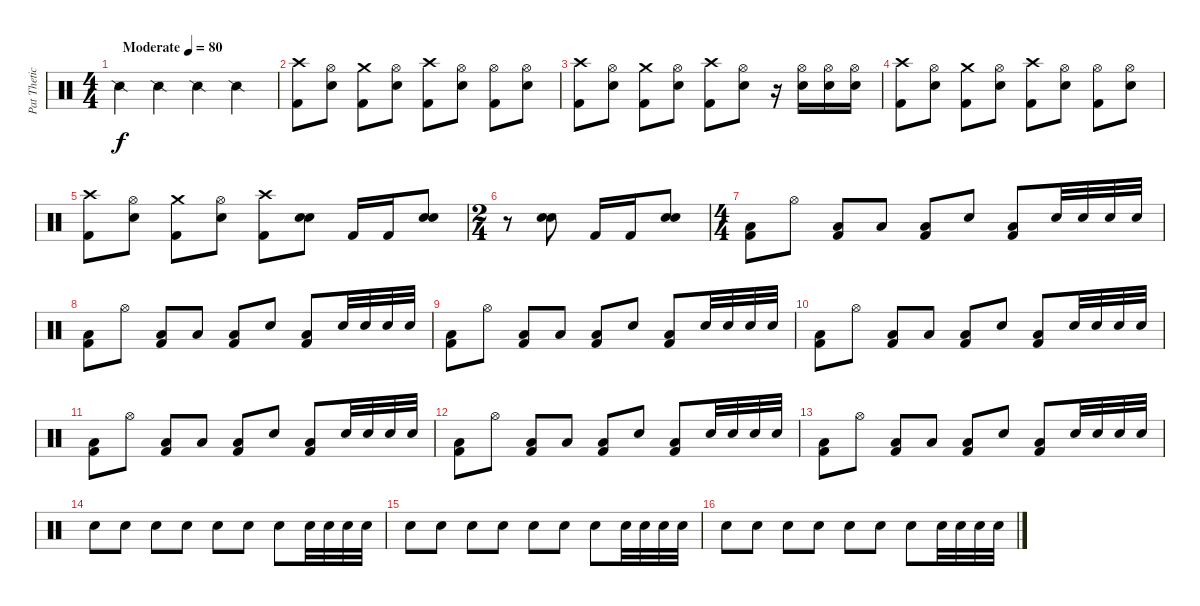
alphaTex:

\track ("Pat Thetic" "Pat Thetic") {instrument percussion}
\staff {score}
\articulation defaults
\ts (4 4)
\tempo (80 "Moderate")
\clef neutral
\ks c "Snare (side stick) 2".4{dy f} "Snare (side stick) 2".4 "Snare (side stick) 2".4 "Snare (side stick) 2".4
|
("Crash high (hit)" "Kick (hit) 2").8 ("Hi-Hat (open)" "Electric Snare (hit)").8 ("Crash medium (hit)" "Kick (hit) 2").8 ("Hi-Hat (open)" "Electric Snare (hit)").8 ("Crash high (hit)" "Kick (hit) 2").8 ("Hi-Hat (open)" "Electric Snare (hit)").8 ("Hi-Hat (open)" "Kick (hit) 2").8 ("Hi-Hat (open)" "Electric Snare (hit)").8 |
("Crash high (hit)" "Kick (hit) 2").8 ("Hi-Hat (open)" "Electric Snare (hit)").8 ("Crash medium (hit)" "Kick (hit) 2").8 ("Hi-Hat (open)" "Electric Snare (hit)").8 ("Crash high (hit)" "Kick (hit) 2").8 ("Hi-Hat (open)" "Electric Snare (hit)").8 r.16 ("Hi-Hat (open)" "Electric Snare (hit)").16 ("Hi-Hat (open)" "Electric Snare (hit)").16 ("Hi-Hat (open)" "Electric Snare (hit)").16 |
("Crash high (hit)" "Kick (hit) 2").8 ("Hi-Hat (open)" "Electric Snare (hit)").8 ("Crash medium (hit)" "Kick (hit) 2").8 ("Hi-Hat (open)" "Electric Snare (hit)").8 ("Crash high (hit)" "Kick (hit) 2").8 ("Hi-Hat (open)" "Electric Snare (hit)").8 ("Hi-Hat (open)" "Kick (hit) 2").8 ("Hi-Hat (open)" "Electric Snare (hit)").8 |
("Crash high (hit)" "Kick (hit) 2").8 ("Hi-Hat (open)" "Electric Snare (hit)").8 ("Crash medium (hit)" "Kick (hit) 2").8 ("Hi-Hat (open)" "Electric Snare (hit)").8 ("Crash high (hit)" "Kick (hit) 2").8 ("Electric Snare (hit)" "Electric Snare (hit)").8 "Kick (hit) 2".16 "Kick (hit) 2".16 ("Electric Snare (hit)" "Electric Snare (hit)").8 |
\ts (2 4)
r.8 ("Electric Snare (hit)" "Electric Snare (hit)").8 "Kick (hit) 2".16 "Kick (hit) 2".16 ("Electric Snare (hit)" "Electric Snare (hit)").8 |
\ts (4 4)
("Low Floor Tom (hit)" "Kick (hit) 2").8 "Hi-Hat (open)".8 ("Low Floor Tom (hit)" "Kick (hit) 2").8 "Low Tom (hit)".8 ("Low Floor Tom (hit)" "Kick (hit) 2").8 "Electric Snare (hit)".8 ("Low Floor Tom (hit)" "Kick (hit) 2").8 "Electric Snare (hit)".32 "Electric Snare (hit)".32 "Electric Snare (hit)".32 "Electric Snare (hit)".32 |
("Low Floor Tom (hit)" "Kick (hit) 2").8 "Hi-Hat (open)".8 ("Low Floor Tom (hit)" "Kick (hit) 2").8 "Low Tom (hit)".8 ("Low Floor Tom (hit)" "Kick (hit) 2").8 "Electric Snare (hit)".8 ("Low Floor Tom (hit)" "Kick (hit) 2").8 "Electric Snare (hit)".32 "Electric Snare (hit)".32 "Electric Snare (hit)".32 "Electric Snare (hit)".32 |
("Low Floor Tom (hit)" "Kick (hit) 2").8 "Hi-Hat (open)".8 ("Low Floor Tom (hit)" "Kick (hit) 2").8 "Low Tom (hit)".8 ("Low Floor Tom (hit)" "Kick (hit) 2").8 "Electric Snare (hit)".8 ("Low Floor Tom (hit)" "Kick (hit) 2").8 "Electric Snare (hit)".32 "Electric Snare (hit)".32 "Electric Snare (hit)".32 "Electric Snare (hit)".32 |
("Low Floor Tom (hit)" "Kick (hit) 2").8 "Hi-Hat (open)".8 ("Low Floor Tom (hit)" "Kick (hit) 2").8 "Low Tom (hit)".8 ("Low Floor Tom (hit)" "Kick (hit) 2").8 "Electric Snare (hit)".8 ("Low Floor Tom (hit)" "Kick (hit) 2").8 "Electric Snare (hit)".32 "Electric Snare (hit)".32 "Electric Snare (hit)".32 "Electric Snare (hit)".32 |
("Low Floor Tom (hit)" "Kick (hit) 2").8 "Hi-Hat (open)".8 ("Low Floor Tom (hit)" "Kick (hit) 2").8 "Low Tom (hit)".8 ("Low Floor Tom (hit)" "Kick (hit) 2").8 "Electric Snare (hit)".8 ("Low Floor Tom (hit)" "Kick (hit) 2").8 "Electric Snare (hit)".32 "Electric Snare (hit)".32 "Electric Snare (hit)".32 "Electric Snare (hit)".32 |
("Low Floor Tom (hit)" "Kick (hit) 2").8 "Hi-Hat (open)".8 ("Low Floor Tom (hit)" "Kick (hit) 2").8 "Low Tom (hit)".8 ("Low Floor Tom (hit)" "Kick (hit) 2").8 "Electric Snare (hit)".8 ("Low Floor Tom (hit)" "Kick (hit) 2").8 "Electric Snare (hit)".32 "Electric Snare (hit)".32 "Electric Snare (hit)".32 "Electric Snare (hit)".32 |
("Low Floor Tom (hit)" "Kick (hit) 2").8 "Hi-Hat (open)".8 ("Low Floor Tom (hit)" "Kick (hit) 2").8 "Low Tom (hit)".8 ("Low Floor Tom (hit)" "Kick (hit) 2").8 "Electric Snare (hit)".8 ("Low Floor Tom (hit)" "Kick (hit) 2").8 "Electric Snare (hit)".32 "Electric Snare (hit)".32 "Electric Snare (hit)".32 "Electric Snare (hit)".32 |
"Electric Snare (hit)".8 "Electric Snare (hit)".8 "Electric Snare (hit)".8 "Electric Snare (hit)".8 "Electric Snare (hit)".8 "Electric Snare (hit)".8 "Electric Snare (hit)".8 "Electric Snare (hit)".32 "Electric Snare (hit)".32 "Electric Snare (hit)".32 "Electric Snare (hit)".32 |
"Electric Snare (hit)".8 "Electric Snare (hit)".8 "Electric Snare (hit)".8 "Electric Snare (hit)".8 "Electric Snare (hit)".8 "Electric Snare (hit)".8 "Electric Snare (hit)".8 "Electric Snare (hit)".32 "Electric Snare (hit)".32 "Electric Snare (hit)".32 "Electric Snare (hit)".32 |
"Electric Snare (hit)".8 "Electric Snare (hit)".8 "Electric Snare (hit)".8 "Electric Snare (hit)".8 "Electric Snare (hit)".8 "Electric Snare (hit)".8 "Electric Snare (hit)".8 "Electric Snare (hit)".32 "Electric Snare (hit)".32 "Electric Snare (hit)".32 "Electric Snare (hit)".32
